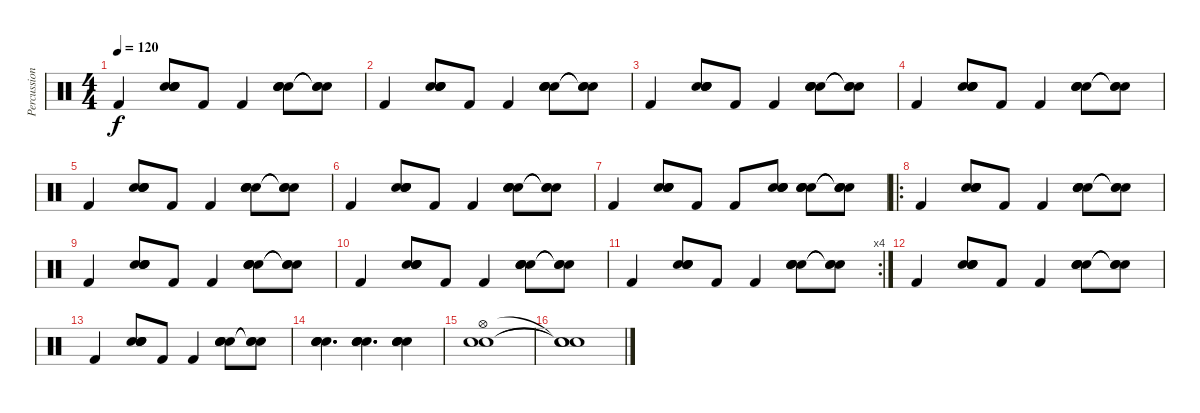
\track ("Percussion" "Percussion") {instrument percussion}
\staff {score}
\articulation defaults
\ts (4 4)
\tempo 120
\clef neutral
\ks c "Kick (hit) 2".4{dy f}
("Snare (hit) 2" "Snare (hit) 2" "Electric Snare (hit)" "Electric Snare (hit)").8 "Kick (hit) 2".8 "Kick (hit) 2".4 ("Snare (hit) 2" "Snare (hit) 2" "Electric Snare (hit)" "Electric Snare (hit)").8 ("Snare (hit)"{t} "Snare (hit)"{t} "Snare (hit)"{t}).8 |
"Kick (hit) 2".4 ("Snare (hit) 2" "Snare (hit) 2" "Electric Snare (hit)" "Electric Snare (hit)").8 "Kick (hit) 2".8 "Kick (hit) 2".4 ("Snare (hit) 2" "Snare (hit) 2" "Electric Snare (hit)" "Electric Snare (hit)").8 ("Snare (hit)"{t} "Snare (hit)"{t} "Snare (hit)"{t}).8 |
"Kick (hit) 2".4 ("Snare (hit) 2" "Snare (hit) 2" "Electric Snare (hit)" "Electric Snare (hit)").8 "Kick (hit) 2".8 "Kick (hit) 2".4 ("Snare (hit) 2" "Snare (hit) 2" "Electric Snare (hit)" "Electric Snare (hit)").8 ("Snare (hit)"{t} "Snare (hit)"{t} "Snare (hit)"{t}).8 |
"Kick (hit) 2".4 ("Snare (hit) 2" "Snare (hit) 2" "Electric Snare (hit)" "Electric Snare (hit)").8 "Kick (hit) 2".8 "Kick (hit) 2".4 ("Snare (hit) 2" "Snare (hit) 2" "Electric Snare (hit)" "Electric Snare (hit)").8 ("Snare (hit)"{t} "Snare (hit)"{t} "Snare (hit)"{t}).8 |
"Kick (hit) 2".4 ("Snare (hit) 2" "Snare (hit) 2" "Electric Snare (hit)" "Electric Snare (hit)").8 "Kick (hit) 2".8 "Kick (hit) 2".4 ("Snare (hit) 2" "Snare (hit) 2" "Electric Snare (hit)" "Electric Snare (hit)").8 ("Snare (hit)"{t} "Snare (hit)"{t} "Snare (hit)"{t}).8 |
"Kick (hit) 2".4 ("Snare (hit) 2" "Snare (hit) 2" "Electric Snare (hit)" "Electric Snare (hit)").8 "Kick (hit) 2".8 "Kick (hit) 2".4 ("Snare (hit) 2" "Snare (hit) 2" "Electric Snare (hit)" "Electric Snare (hit)").8 ("Snare (hit)"{t} "Snare (hit)"{t} "Snare (hit)"{t}).8 |
"Kick (hit) 2".4 ("Snare (hit) 2" "Snare (hit) 2" "Electric Snare (hit)" "Electric Snare (hit)").8 "Kick (hit) 2".8 "Kick (hit) 2".8 ("Snare (hit) 2" "Snare (hit) 2" "Electric Snare (hit)" "Electric Snare (hit)").8 ("Snare (hit) 2" "Snare (hit) 2" "Electric Snare (hit)" "Electric Snare (hit)").8 ("Snare (hit)"{t} "Snare (hit)"{t} "Snare (hit)"{t} "Snare (hit)"{t}).8 |
\ro "Kick (hit) 2".4
("Snare (hit) 2" "Snare (hit) 2" "Electric Snare (hit)" "Electric Snare (hit)").8 "Kick (hit) 2".8 "Kick (hit) 2".4 ("Snare (hit) 2" "Snare (hit) 2" "Electric Snare (hit)" "Electric Snare (hit)").8 ("Snare (hit)"{t} "Snare (hit)"{t} "Snare (hit)"{t}).8 |
"Kick (hit) 2".4 ("Snare (hit) 2" "Snare (hit) 2" "Electric Snare (hit)" "Electric Snare (hit)").8 "Kick (hit) 2".8 "Kick (hit) 2".4 ("Snare (hit) 2" "Snare (hit) 2" "Electric Snare (hit)" "Electric Snare (hit)").8 ("Snare (hit)"{t} "Snare (hit)"{t} "Snare (hit)"{t}).8 |
"Kick (hit) 2".4 ("Snare (hit) 2" "Snare (hit) 2" "Electric Snare (hit)" "Electric Snare (hit)").8 "Kick (hit) 2".8 "Kick (hit) 2".4 ("Snare (hit) 2" "Snare (hit) 2" "Electric Snare (hit)" "Electric Snare (hit)").8 ("Snare (hit)"{t} "Snare (hit)"{t} "Snare (hit)"{t}).8 |
\rc 4 "Kick (hit) 2".4
("Snare (hit) 2" "Snare (hit) 2" "Electric Snare (hit)" "Electric Snare (hit)").8 "Kick (hit) 2".8 "Kick (hit) 2".4 ("Snare (hit) 2" "Snare (hit) 2" "Electric Snare (hit)" "Electric Snare (hit)").8 ("Snare (hit)"{t} "Snare (hit)"{t} "Snare (hit)"{t}).8 |
"Kick (hit) 2".4 ("Snare (hit) 2" "Snare (hit) 2" "Electric Snare (hit)" "Electric Snare (hit)").8 "Kick (hit) 2".8 "Kick (hit) 2".4 ("Snare (hit) 2" "Snare (hit) 2" "Electric Snare (hit)" "Electric Snare (hit)").8 ("Snare (hit)"{t} "Snare (hit)"{t} "Snare (hit)"{t}).8 |
"Kick (hit) 2".4 ("Snare (hit) 2" "Snare (hit) 2" "Electric Snare (hit)" "Electric Snare (hit)").8 "Kick (hit) 2".8 "Kick (hit) 2".4 ("Snare (hit) 2" "Snare (hit) 2" "Electric Snare (hit)" "Electric Snare (hit)").8 ("Snare (hit)"{t} "Snare (hit)"{t} "Snare (hit)"{t}).8 |
("Snare (hit) 2" "Snare (hit) 2" "Electric Snare (hit)" "Electric Snare (hit)").4{d} ("Snare (hit) 2" "Snare (hit) 2" "Electric Snare (hit)" "Electric Snare (hit)").4{d} ("Snare (hit) 2" "Snare (hit) 2" "Electric Snare (hit)" "Electric Snare (hit)").4 |
("Hi-Hat (open)" "Snare (hit) 2" "Electric Snare (hit)").1 |
("Snare (hit)"{t} "Snare (hit)"{t} "Snare (hit)"{t}).1
